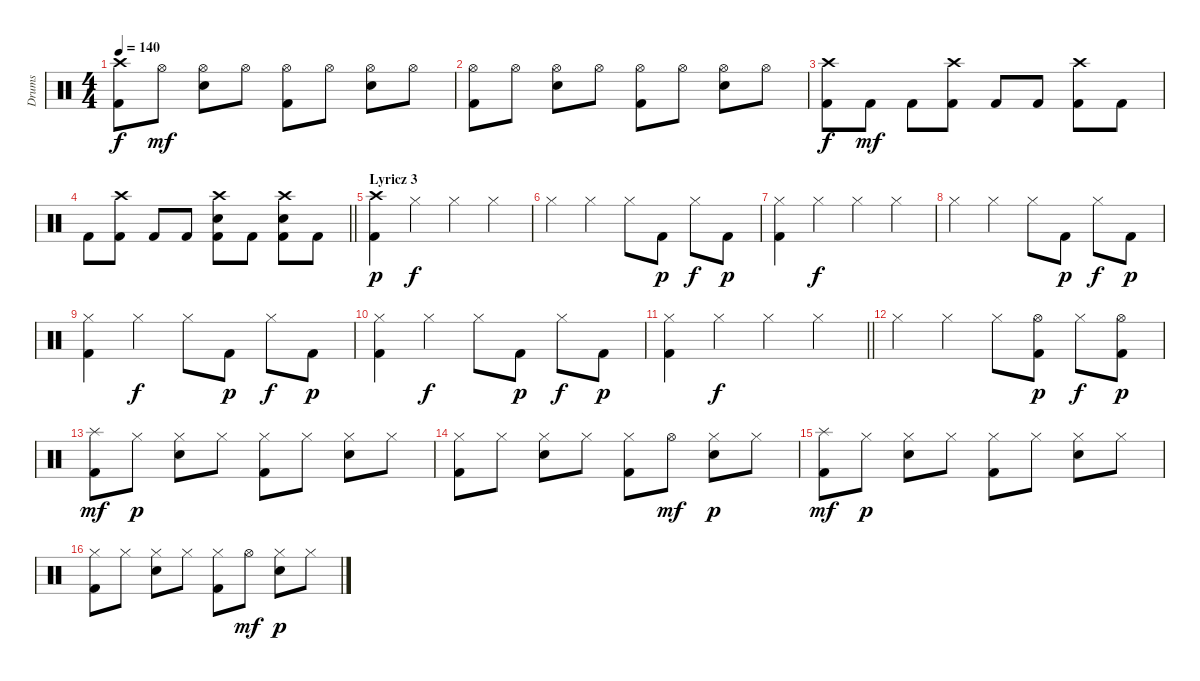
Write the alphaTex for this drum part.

\track ("Drums" "Drums") {instrument percussion}
\staff {score}
\articulation defaults
\ts (4 4)
\tempo 140
\clef neutral
\ks c
("Crash high (hit)" "Kick (hit) 2").8{dy f} "Hi-Hat (open)".8{dy mf} ("Hi-Hat (open)" "Snare (hit) 2").8 "Hi-Hat (open)".8 ("Hi-Hat (open)" "Kick (hit) 2").8 "Hi-Hat (open)".8 ("Hi-Hat (open)" "Snare (hit) 2").8 "Hi-Hat (open)".8 |
("Hi-Hat (open)" "Kick (hit) 2").8 "Hi-Hat (open)".8 ("Hi-Hat (open)" "Snare (hit) 2").8 "Hi-Hat (open)".8 ("Hi-Hat (open)" "Kick (hit) 2").8 "Hi-Hat (open)".8 ("Hi-Hat (open)" "Snare (hit) 2").8 "Hi-Hat (open)".8 |
("Crash high (hit)" "Kick (hit) 2").8{dy f} "Kick (hit) 2".8{dy mf} "Kick (hit) 2".8 ("Crash high (hit)" "Kick (hit) 2").8 "Kick (hit) 2".8 "Kick (hit) 2".8 ("Crash high (hit)" "Kick (hit) 2").8 "Kick (hit) 2".8 |
\barLineRight lightlight "Kick (hit) 2".8
("Crash high (hit)" "Kick (hit) 2").8 "Kick (hit) 2".8 "Kick (hit) 2".8 ("Crash high (hit)" "Snare (hit) 2" "Kick (hit) 2").8 "Kick (hit) 2".8 ("Crash high (hit)" "Snare (hit) 2" "Kick (hit) 2").8 "Kick (hit) 2".8 |
\section ("" "Lyricz 3")
("Crash high (hit)" "Kick (hit) 2").4{dy p} "Hi-Hat (closed)".4{dy f} "Hi-Hat (closed)".4 "Hi-Hat (closed)".4 |
"Hi-Hat (closed)".4 "Hi-Hat (closed)".4 "Hi-Hat (closed)".8 "Kick (hit) 2".8{dy p} "Hi-Hat (closed)".8{dy f} "Kick (hit) 2".8{dy p} |
("Hi-Hat (closed)" "Kick (hit) 2").4 "Hi-Hat (closed)".4{dy f} "Hi-Hat (closed)".4 "Hi-Hat (closed)".4 |
"Hi-Hat (closed)".4 "Hi-Hat (closed)".4 "Hi-Hat (closed)".8 "Kick (hit) 2".8{dy p} "Hi-Hat (closed)".8{dy f} "Kick (hit) 2".8{dy p} |
("Hi-Hat (closed)" "Kick (hit) 2").4 "Hi-Hat (closed)".4{dy f} "Hi-Hat (closed)".8 "Kick (hit) 2".8{dy p} "Hi-Hat (closed)".8{dy f} "Kick (hit) 2".8{dy p} |
("Hi-Hat (closed)" "Kick (hit) 2").4 "Hi-Hat (closed)".4{dy f} "Hi-Hat (closed)".8 "Kick (hit) 2".8{dy p} "Hi-Hat (closed)".8{dy f} "Kick (hit) 2".8{dy p} |
\barLineRight lightlight
("Hi-Hat (closed)" "Kick (hit) 2").4 "Hi-Hat (closed)".4{dy f} "Hi-Hat (closed)".4 "Hi-Hat (closed)".4 |
"Hi-Hat (closed)".4 "Hi-Hat (closed)".4 "Hi-Hat (closed)".8 ("Hi-Hat (open)" "Kick (hit) 2").8{dy p} "Hi-Hat (closed)".8{dy f} ("Hi-Hat (open)" "Kick (hit) 2").8{dy p} |
("Splash (hit)" "Kick (hit) 2").8{dy mf} "Hi-Hat (closed)".8{dy p} ("Hi-Hat (closed)" "Snare (hit) 2").8 "Hi-Hat (closed)".8 ("Hi-Hat (closed)" "Kick (hit) 2").8 "Hi-Hat (closed)".8 ("Hi-Hat (closed)" "Snare (hit) 2").8 "Hi-Hat (closed)".8 |
("Hi-Hat (closed)" "Kick (hit) 2").8 "Hi-Hat (closed)".8 ("Hi-Hat (closed)" "Snare (hit) 2").8 "Hi-Hat (closed)".8 ("Hi-Hat (closed)" "Kick (hit) 2").8 "Hi-Hat (open)".8{dy mf} ("Hi-Hat (closed)" "Snare (hit) 2").8{dy p} "Hi-Hat (closed)".8 |
("Splash (hit)" "Kick (hit) 2").8{dy mf} "Hi-Hat (closed)".8{dy p} ("Hi-Hat (closed)" "Snare (hit) 2").8 "Hi-Hat (closed)".8 ("Hi-Hat (closed)" "Kick (hit) 2").8 "Hi-Hat (closed)".8 ("Hi-Hat (closed)" "Snare (hit) 2").8 "Hi-Hat (closed)".8 |
("Hi-Hat (closed)" "Kick (hit) 2").8 "Hi-Hat (closed)".8 ("Hi-Hat (closed)" "Snare (hit) 2").8 "Hi-Hat (closed)".8 ("Hi-Hat (closed)" "Kick (hit) 2").8 "Hi-Hat (open)".8{dy mf} ("Hi-Hat (closed)" "Snare (hit) 2").8{dy p} "Hi-Hat (closed)".8
